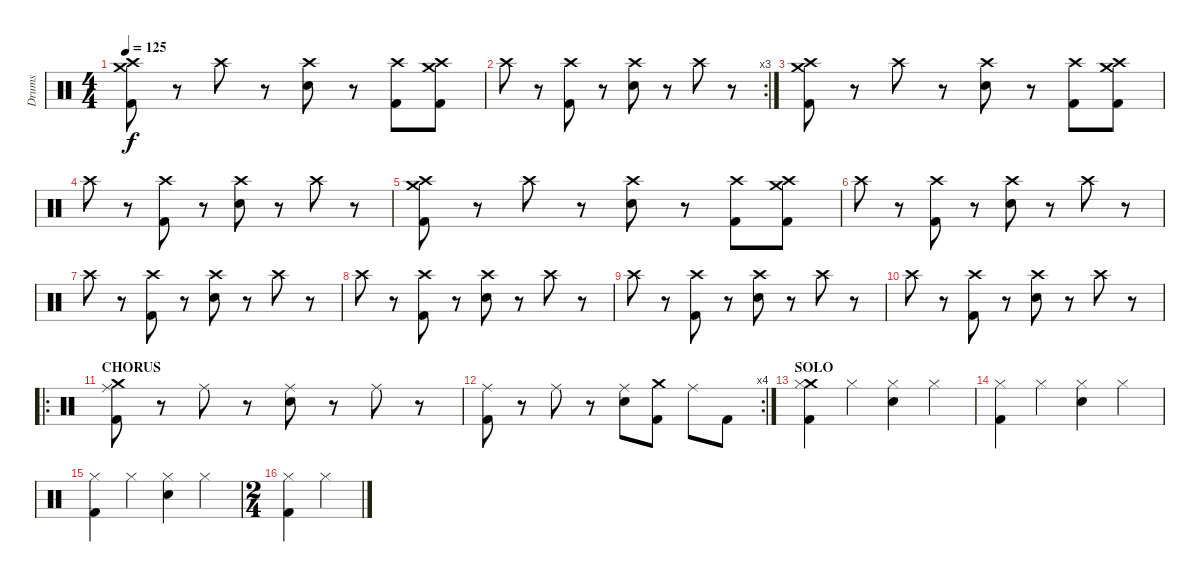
\track ("Drums" "Drums") {instrument percussion}
\staff {score}
\articulation defaults
\ts (4 4)
\tempo 125
\clef neutral
\ks c
("Crash medium (hit)" "Crash high (hit)" "Kick (hit) 2").8{dy f} r.8 "Crash high (hit)".8 r.8 ("Crash high (hit)" "Electric Snare (hit)").8 r.8 ("Crash high (hit)" "Kick (hit) 2").8 ("Crash medium (hit)" "Crash high (hit)" "Kick (hit) 2").8 |
\rc 3 "Crash high (hit)".8
r.8 ("Crash high (hit)" "Kick (hit) 2").8 r.8 ("Crash high (hit)" "Electric Snare (hit)").8 r.8 "Crash high (hit)".8 r.8 |
("Crash medium (hit)" "Crash high (hit)" "Kick (hit) 2").8 r.8 "Crash high (hit)".8 r.8 ("Crash high (hit)" "Electric Snare (hit)").8 r.8 ("Crash high (hit)" "Kick (hit) 2").8 ("Crash medium (hit)" "Crash high (hit)" "Kick (hit) 2").8 |
"Crash high (hit)".8 r.8 ("Crash high (hit)" "Kick (hit) 2").8 r.8 ("Crash high (hit)" "Electric Snare (hit)").8 r.8 "Crash high (hit)".8 r.8 |
("Crash medium (hit)" "Crash high (hit)" "Kick (hit) 2").8 r.8 "Crash high (hit)".8 r.8 ("Crash high (hit)" "Electric Snare (hit)").8 r.8 ("Crash high (hit)" "Kick (hit) 2").8 ("Crash medium (hit)" "Crash high (hit)" "Kick (hit) 2").8 |
"Crash high (hit)".8 r.8 ("Crash high (hit)" "Kick (hit) 2").8 r.8 ("Crash high (hit)" "Electric Snare (hit)").8 r.8 "Crash high (hit)".8 r.8 |
"Crash high (hit)".8 r.8 ("Crash high (hit)" "Kick (hit) 2").8 r.8 ("Crash high (hit)" "Electric Snare (hit)").8 r.8 "Crash high (hit)".8 r.8 |
"Crash high (hit)".8 r.8 ("Crash high (hit)" "Kick (hit) 2").8 r.8 ("Crash high (hit)" "Electric Snare (hit)").8 r.8 "Crash high (hit)".8 r.8 |
"Crash high (hit)".8 r.8 ("Crash high (hit)" "Kick (hit) 2").8 r.8 ("Crash high (hit)" "Electric Snare (hit)").8 r.8 "Crash high (hit)".8 r.8 |
"Crash high (hit)".8 r.8 ("Crash high (hit)" "Kick (hit) 2").8 r.8 ("Crash high (hit)" "Electric Snare (hit)").8 r.8 "Crash high (hit)".8 r.8 |
\ro
\section ("" "CHORUS")
("Crash medium (hit)" "Ride (middle)" "Kick (hit) 2").8 r.8 "Ride (middle)".8 r.8 ("Ride (middle)" "Electric Snare (hit)").8 r.8 "Ride (middle)".8 r.8 |
\rc 4
("Ride (middle)" "Kick (hit) 2").8 r.8 "Ride (middle)".8 r.8 ("Ride (middle)" "Electric Snare (hit)").8 ("Crash medium (hit)" "Kick (hit) 2").8 "Ride (middle)".8 "Kick (hit) 2".8 |
\section ("" "SOLO")
("Crash medium (hit)" "Hi-Hat (closed)" "Kick (hit) 2").4 "Hi-Hat (closed)".4 ("Hi-Hat (closed)" "Electric Snare (hit)").4 "Hi-Hat (closed)".4 |
("Hi-Hat (closed)" "Kick (hit) 2").4 "Hi-Hat (closed)".4 ("Hi-Hat (closed)" "Electric Snare (hit)").4 "Hi-Hat (closed)".4 |
("Hi-Hat (closed)" "Kick (hit) 2").4 "Hi-Hat (closed)".4 ("Hi-Hat (closed)" "Electric Snare (hit)").4 "Hi-Hat (closed)".4 |
\ts (2 4)
("Hi-Hat (closed)" "Kick (hit) 2").4 "Hi-Hat (closed)".4
